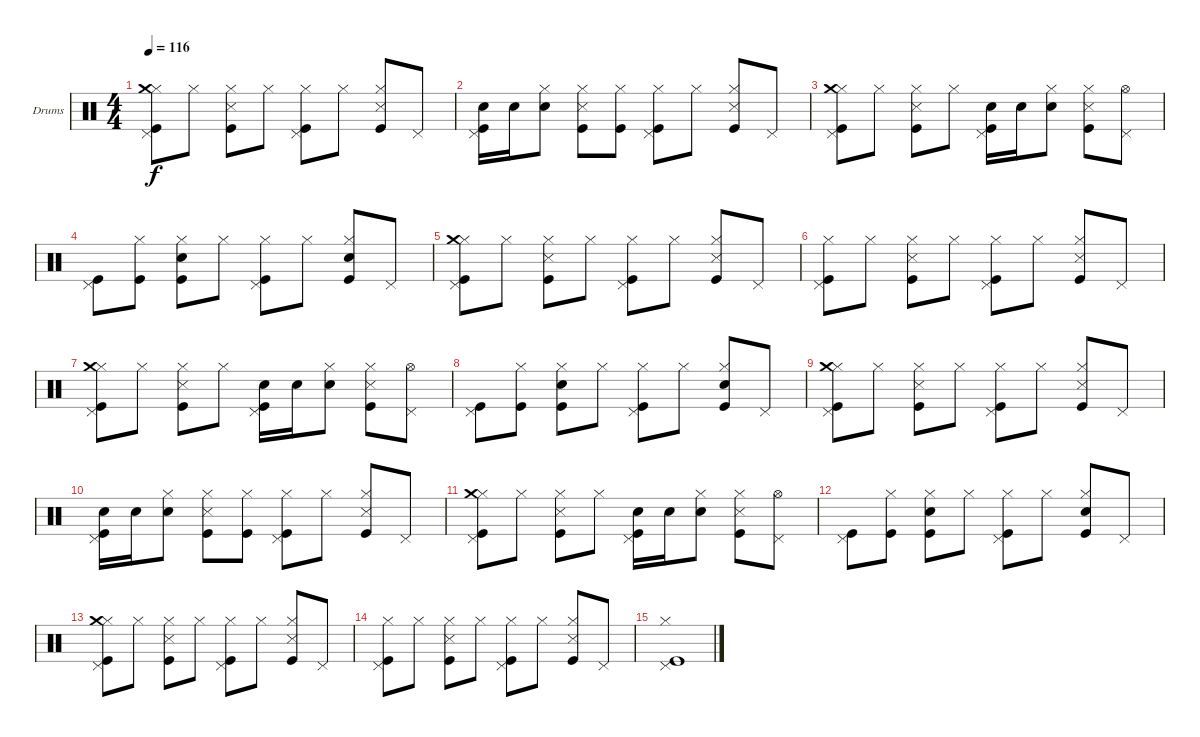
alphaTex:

\bracketExtendMode groupsimilarinstruments
\firstSystemTrackNameOrientation horizontal
\otherSystemsTrackNameOrientation horizontal
\track ("Drumkit" "Drums") {instrument percussion}
\staff {score}
\articulation defaults
\ts (4 4)
\tempo 116
\clef neutral
\ks c
("Kick (hit)" "Hi-Hat (closed)" "Pedal Hi-Hat (hit)" "Crash medium (hit)").8{dy f} "Hi-Hat (closed)".8 ("Snare (side stick) 3" "Hi-Hat (closed)" "Kick (hit)").8 "Hi-Hat (closed)".8 ("Kick (hit)" "Hi-Hat (closed)" "Pedal Hi-Hat (hit)").8 "Hi-Hat (closed)".8 ("Snare (side stick) 3" "Hi-Hat (closed)" "Kick (hit)").8 "Pedal Hi-Hat (hit)".8 |
("Kick (hit)" "Snare (hit) 2" "Pedal Hi-Hat (hit)").16 "Snare (hit) 2".16 ("Snare (hit) 2" "Hi-Hat (closed)").8 ("Snare (side stick) 3" "Kick (hit)" "Hi-Hat (closed)").8 ("Kick (hit)" "Hi-Hat (closed)").8 ("Hi-Hat (closed)" "Pedal Hi-Hat (hit)" "Kick (hit)").8 "Hi-Hat (closed)".8 ("Snare (side stick) 3" "Hi-Hat (closed)" "Kick (hit)").8 "Pedal Hi-Hat (hit)".8 |
("Hi-Hat (closed)" "Kick (hit)" "Pedal Hi-Hat (hit)" "Crash medium (hit)").8 "Hi-Hat (closed)".8 ("Snare (side stick) 3" "Hi-Hat (closed)" "Kick (hit)").8 "Hi-Hat (closed)".8 ("Snare (hit) 2" "Pedal Hi-Hat (hit)" "Kick (hit)").16 "Snare (hit) 2".16 ("Snare (hit) 2" "Hi-Hat (closed)").8 ("Snare (side stick) 3" "Hi-Hat (closed)" "Kick (hit)").8 ("Hi-Hat (open)" "Pedal Hi-Hat (hit)").8 |
("Kick (hit)" "Pedal Hi-Hat (hit)").8 ("Kick (hit)" "Hi-Hat (closed)").8 ("Snare (hit) 2" "Hi-Hat (closed)" "Kick (hit)").8 "Hi-Hat (closed)".8 ("Hi-Hat (closed)" "Pedal Hi-Hat (hit)" "Kick (hit)").8 "Hi-Hat (closed)".8 ("Snare (hit) 2" "Hi-Hat (closed)" "Kick (hit)").8 "Pedal Hi-Hat (hit)".8 |
("Kick (hit)" "Hi-Hat (closed)" "Pedal Hi-Hat (hit)" "Crash medium (hit)").8 "Hi-Hat (closed)".8 ("Snare (side stick) 3" "Hi-Hat (closed)" "Kick (hit)").8 "Hi-Hat (closed)".8 ("Kick (hit)" "Hi-Hat (closed)" "Pedal Hi-Hat (hit)").8 "Hi-Hat (closed)".8 ("Snare (side stick) 3" "Hi-Hat (closed)" "Kick (hit)").8 "Pedal Hi-Hat (hit)".8 |
("Kick (hit)" "Hi-Hat (closed)" "Pedal Hi-Hat (hit)").8 "Hi-Hat (closed)".8 ("Snare (side stick) 3" "Hi-Hat (closed)" "Kick (hit)").8 "Hi-Hat (closed)".8 ("Kick (hit)" "Hi-Hat (closed)" "Pedal Hi-Hat (hit)").8 "Hi-Hat (closed)".8 ("Snare (side stick) 3" "Hi-Hat (closed)" "Kick (hit)").8 "Pedal Hi-Hat (hit)".8 |
("Hi-Hat (closed)" "Kick (hit)" "Pedal Hi-Hat (hit)" "Crash medium (hit)").8 "Hi-Hat (closed)".8 ("Snare (side stick) 3" "Hi-Hat (closed)" "Kick (hit)").8 "Hi-Hat (closed)".8 ("Snare (hit) 2" "Pedal Hi-Hat (hit)" "Kick (hit)").16 "Snare (hit) 2".16 ("Snare (hit) 2" "Hi-Hat (closed)").8 ("Snare (side stick) 3" "Hi-Hat (closed)" "Kick (hit)").8 ("Hi-Hat (open)" "Pedal Hi-Hat (hit)").8 |
("Kick (hit)" "Pedal Hi-Hat (hit)").8 ("Kick (hit)" "Hi-Hat (closed)").8 ("Snare (hit) 2" "Hi-Hat (closed)" "Kick (hit)").8 "Hi-Hat (closed)".8 ("Hi-Hat (closed)" "Pedal Hi-Hat (hit)" "Kick (hit)").8 "Hi-Hat (closed)".8 ("Snare (hit) 2" "Hi-Hat (closed)" "Kick (hit)").8 "Pedal Hi-Hat (hit)".8 |
("Kick (hit)" "Hi-Hat (closed)" "Pedal Hi-Hat (hit)" "Crash medium (hit)").8 "Hi-Hat (closed)".8 ("Snare (side stick) 3" "Hi-Hat (closed)" "Kick (hit)").8 "Hi-Hat (closed)".8 ("Kick (hit)" "Hi-Hat (closed)" "Pedal Hi-Hat (hit)").8 "Hi-Hat (closed)".8 ("Snare (side stick) 3" "Hi-Hat (closed)" "Kick (hit)").8 "Pedal Hi-Hat (hit)".8 |
("Kick (hit)" "Snare (hit) 2" "Pedal Hi-Hat (hit)").16 "Snare (hit) 2".16 ("Snare (hit) 2" "Hi-Hat (closed)").8 ("Snare (side stick) 3" "Kick (hit)" "Hi-Hat (closed)").8 ("Kick (hit)" "Hi-Hat (closed)").8 ("Hi-Hat (closed)" "Pedal Hi-Hat (hit)" "Kick (hit)").8 "Hi-Hat (closed)".8 ("Snare (side stick) 3" "Hi-Hat (closed)" "Kick (hit)").8 "Pedal Hi-Hat (hit)".8 |
("Hi-Hat (closed)" "Kick (hit)" "Pedal Hi-Hat (hit)" "Crash medium (hit)").8 "Hi-Hat (closed)".8 ("Snare (side stick) 3" "Hi-Hat (closed)" "Kick (hit)").8 "Hi-Hat (closed)".8 ("Snare (hit) 2" "Pedal Hi-Hat (hit)" "Kick (hit)").16 "Snare (hit) 2".16 ("Snare (hit) 2" "Hi-Hat (closed)").8 ("Snare (side stick) 3" "Hi-Hat (closed)" "Kick (hit)").8 ("Hi-Hat (open)" "Pedal Hi-Hat (hit)").8 |
("Kick (hit)" "Pedal Hi-Hat (hit)").8 ("Kick (hit)" "Hi-Hat (closed)").8 ("Snare (hit) 2" "Hi-Hat (closed)" "Kick (hit)").8 "Hi-Hat (closed)".8 ("Hi-Hat (closed)" "Pedal Hi-Hat (hit)" "Kick (hit)").8 "Hi-Hat (closed)".8 ("Snare (hit) 2" "Hi-Hat (closed)" "Kick (hit)").8 "Pedal Hi-Hat (hit)".8 |
("Kick (hit)" "Hi-Hat (closed)" "Pedal Hi-Hat (hit)" "Crash medium (hit)").8 "Hi-Hat (closed)".8 ("Snare (side stick) 3" "Hi-Hat (closed)" "Kick (hit)").8 "Hi-Hat (closed)".8 ("Kick (hit)" "Hi-Hat (closed)" "Pedal Hi-Hat (hit)").8 "Hi-Hat (closed)".8 ("Snare (side stick) 3" "Hi-Hat (closed)" "Kick (hit)").8 "Pedal Hi-Hat (hit)".8 |
("Kick (hit)" "Hi-Hat (closed)" "Pedal Hi-Hat (hit)").8 "Hi-Hat (closed)".8 ("Snare (side stick) 3" "Hi-Hat (closed)" "Kick (hit)").8 "Hi-Hat (closed)".8 ("Kick (hit)" "Hi-Hat (closed)" "Pedal Hi-Hat (hit)").8 "Hi-Hat (closed)".8 ("Snare (side stick) 3" "Hi-Hat (closed)" "Kick (hit)").8 "Pedal Hi-Hat (hit)".8 |
("Kick (hit)" "Hi-Hat (closed)" "Pedal Hi-Hat (hit)").1
